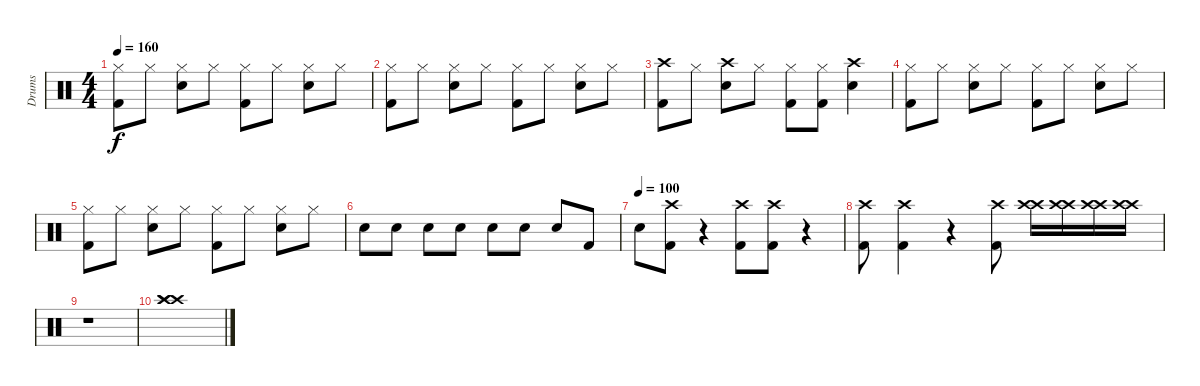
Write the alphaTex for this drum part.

\track ("Drums" "Drums") {instrument percussion}
\staff {score}
\articulation defaults
\ts (4 4)
\tempo 160
\clef neutral
\ks c
("Hi-Hat (closed)" "Kick (hit) 2").8{dy f} "Hi-Hat (closed)".8 ("Hi-Hat (closed)" "Electric Snare (hit)").8 "Hi-Hat (closed)".8 ("Hi-Hat (closed)" "Kick (hit) 2").8 "Hi-Hat (closed)".8 ("Hi-Hat (closed)" "Electric Snare (hit)").8 "Hi-Hat (closed)".8 |
("Hi-Hat (closed)" "Kick (hit) 2").8 "Hi-Hat (closed)".8 ("Hi-Hat (closed)" "Electric Snare (hit)").8 "Hi-Hat (closed)".8 ("Hi-Hat (closed)" "Kick (hit) 2").8 "Hi-Hat (closed)".8 ("Hi-Hat (closed)" "Electric Snare (hit)").8 "Hi-Hat (closed)".8 |
("Crash high (hit)" "Kick (hit) 2").8 "Hi-Hat (closed)".8 ("Crash high (hit)" "Electric Snare (hit)").8 "Hi-Hat (closed)".8 ("Hi-Hat (closed)" "Kick (hit) 2").8 ("Hi-Hat (closed)" "Kick (hit) 2").8 ("Crash high (hit)" "Electric Snare (hit)").4 |
("Hi-Hat (closed)" "Kick (hit) 2").8 "Hi-Hat (closed)".8 ("Hi-Hat (closed)" "Electric Snare (hit)").8 "Hi-Hat (closed)".8 ("Hi-Hat (closed)" "Kick (hit) 2").8 "Hi-Hat (closed)".8 ("Hi-Hat (closed)" "Electric Snare (hit)").8 "Hi-Hat (closed)".8 |
("Hi-Hat (closed)" "Kick (hit) 2").8 "Hi-Hat (closed)".8 ("Hi-Hat (closed)" "Electric Snare (hit)").8 "Hi-Hat (closed)".8 ("Hi-Hat (closed)" "Kick (hit) 2").8 "Hi-Hat (closed)".8 ("Hi-Hat (closed)" "Electric Snare (hit)").8 "Hi-Hat (closed)".8 |
"Electric Snare (hit)".8 "Electric Snare (hit)".8 "Electric Snare (hit)".8 "Electric Snare (hit)".8 "Electric Snare (hit)".8 "Electric Snare (hit)".8 "Electric Snare (hit)".8 "Kick (hit) 2".8 |
\tempo (100)
"Electric Snare (hit)".8 ("Crash high (hit)" "Kick (hit) 2").8 r.4 ("Crash high (hit)" "Kick (hit) 2").8 ("Crash high (hit)" "Kick (hit) 2").8 r.4 |
("Crash high (hit)" "Kick (hit) 2").8 ("Crash high (hit)" "Kick (hit) 2").4 r.4 ("Crash high (hit)" "Kick (hit) 2").8 ("Crash high (hit)" "Crash high (hit)").16 ("Crash high (hit)" "Crash high (hit)").16 ("Crash high (hit)" "Crash high (hit)").16 ("Crash high (hit)" "Crash high (hit)").16 |
r.1 |
("Crash high (hit)" "Crash high (hit)" "Crash high (hit)").1
